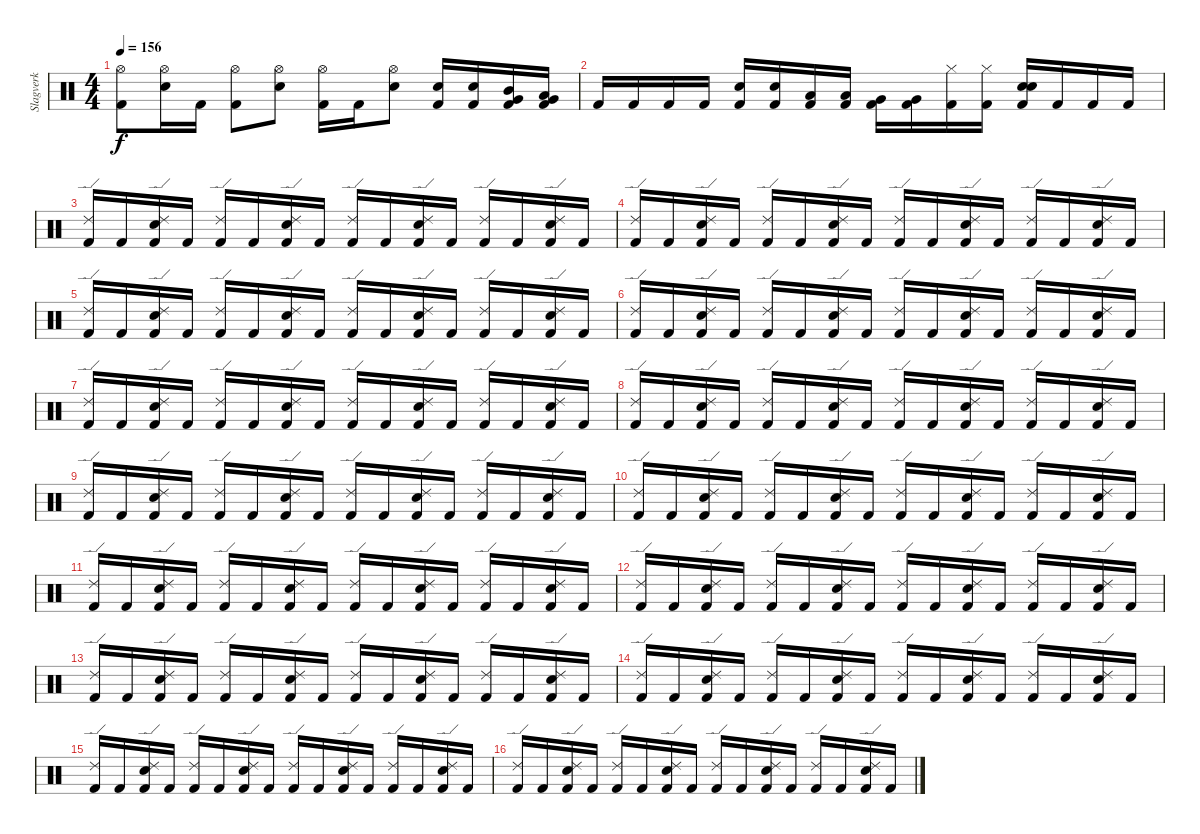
\track ("Slagverk" "Slagverk") {instrument percussion}
\staff {score}
\articulation defaults
\ts (4 4)
\tempo 156
\clef neutral
\ks c
("Kick (hit) 2" "Hi-Hat (open)").8{dy f} ("Snare (hit) 2" "Hi-Hat (open)").16 "Kick (hit) 2".16 ("Kick (hit) 2" "Hi-Hat (open)").8 ("Snare (hit) 2" "Hi-Hat (open)").8 ("Kick (hit) 2" "Hi-Hat (open)").16 "Kick (hit) 2".16 ("Snare (hit) 2" "Hi-Hat (open)").8 ("Snare (hit) 2" "Kick (hit) 2").16 ("Snare (hit) 2" "Kick (hit) 2").16 ("Very Low Tom (hit)" "Mid Tom (hit)" "Kick (hit) 2").16 ("Low Tom (hit)" "Very Low Tom (hit)" "Kick (hit) 2").16 |
"Kick (hit) 2".16 "Kick (hit) 2".16 "Kick (hit) 2".16 "Kick (hit) 2".16 ("Snare (hit) 2" "Kick (hit) 2").16 ("Snare (hit) 2" "Kick (hit) 2").16 ("Low Tom (hit)" "Kick (hit) 2").16 ("Low Tom (hit)" "Kick (hit) 2").16 ("Very Low Tom (hit)" "Kick (hit) 2").16 ("Very Low Tom (hit)" "Kick (hit) 2").16 ("Hi-Hat (closed)" "Kick (hit) 2").16 ("Hi-Hat (closed)" "Kick (hit) 2").16 ("Snare (hit) 2" "Electric Snare (hit)" "Kick (hit) 2").16 "Kick (hit) 2".16 "Kick (hit) 2".16 "Kick (hit) 2".16 |
("Ride (edge) 2" "Kick (hit) 2").16 "Kick (hit) 2".16 ("Snare (hit) 2" "Ride (edge) 2" "Kick (hit) 2").16 "Kick (hit) 2".16 ("Ride (edge) 2" "Kick (hit) 2").16 "Kick (hit) 2".16 ("Snare (hit) 2" "Ride (edge) 2" "Kick (hit) 2").16 "Kick (hit) 2".16 ("Ride (edge) 2" "Kick (hit) 2").16 "Kick (hit) 2".16 ("Snare (hit) 2" "Ride (edge) 2" "Kick (hit) 2").16 "Kick (hit) 2".16 ("Ride (edge) 2" "Kick (hit) 2").16 "Kick (hit) 2".16 ("Snare (hit) 2" "Ride (edge) 2" "Kick (hit) 2").16 "Kick (hit) 2".16 |
("Ride (edge) 2" "Kick (hit) 2").16 "Kick (hit) 2".16 ("Snare (hit) 2" "Ride (edge) 2" "Kick (hit) 2").16 "Kick (hit) 2".16 ("Ride (edge) 2" "Kick (hit) 2").16 "Kick (hit) 2".16 ("Snare (hit) 2" "Ride (edge) 2" "Kick (hit) 2").16 "Kick (hit) 2".16 ("Ride (edge) 2" "Kick (hit) 2").16 "Kick (hit) 2".16 ("Snare (hit) 2" "Ride (edge) 2" "Kick (hit) 2").16 "Kick (hit) 2".16 ("Ride (edge) 2" "Kick (hit) 2").16 "Kick (hit) 2".16 ("Snare (hit) 2" "Ride (edge) 2" "Kick (hit) 2").16 "Kick (hit) 2".16 |
("Ride (edge) 2" "Kick (hit) 2").16 "Kick (hit) 2".16 ("Snare (hit) 2" "Ride (edge) 2" "Kick (hit) 2").16 "Kick (hit) 2".16 ("Ride (edge) 2" "Kick (hit) 2").16 "Kick (hit) 2".16 ("Snare (hit) 2" "Ride (edge) 2" "Kick (hit) 2").16 "Kick (hit) 2".16 ("Ride (edge) 2" "Kick (hit) 2").16 "Kick (hit) 2".16 ("Snare (hit) 2" "Ride (edge) 2" "Kick (hit) 2").16 "Kick (hit) 2".16 ("Ride (edge) 2" "Kick (hit) 2").16 "Kick (hit) 2".16 ("Snare (hit) 2" "Ride (edge) 2" "Kick (hit) 2").16 "Kick (hit) 2".16 |
("Ride (edge) 2" "Kick (hit) 2").16 "Kick (hit) 2".16 ("Snare (hit) 2" "Ride (edge) 2" "Kick (hit) 2").16 "Kick (hit) 2".16 ("Ride (edge) 2" "Kick (hit) 2").16 "Kick (hit) 2".16 ("Snare (hit) 2" "Ride (edge) 2" "Kick (hit) 2").16 "Kick (hit) 2".16 ("Ride (edge) 2" "Kick (hit) 2").16 "Kick (hit) 2".16 ("Snare (hit) 2" "Ride (edge) 2" "Kick (hit) 2").16 "Kick (hit) 2".16 ("Ride (edge) 2" "Kick (hit) 2").16 "Kick (hit) 2".16 ("Snare (hit) 2" "Ride (edge) 2" "Kick (hit) 2").16 "Kick (hit) 2".16 |
("Ride (edge) 2" "Kick (hit) 2").16 "Kick (hit) 2".16 ("Snare (hit) 2" "Ride (edge) 2" "Kick (hit) 2").16 "Kick (hit) 2".16 ("Ride (edge) 2" "Kick (hit) 2").16 "Kick (hit) 2".16 ("Snare (hit) 2" "Ride (edge) 2" "Kick (hit) 2").16 "Kick (hit) 2".16 ("Ride (edge) 2" "Kick (hit) 2").16 "Kick (hit) 2".16 ("Snare (hit) 2" "Ride (edge) 2" "Kick (hit) 2").16 "Kick (hit) 2".16 ("Ride (edge) 2" "Kick (hit) 2").16 "Kick (hit) 2".16 ("Snare (hit) 2" "Ride (edge) 2" "Kick (hit) 2").16 "Kick (hit) 2".16 |
("Ride (edge) 2" "Kick (hit) 2").16 "Kick (hit) 2".16 ("Snare (hit) 2" "Ride (edge) 2" "Kick (hit) 2").16 "Kick (hit) 2".16 ("Ride (edge) 2" "Kick (hit) 2").16 "Kick (hit) 2".16 ("Snare (hit) 2" "Ride (edge) 2" "Kick (hit) 2").16 "Kick (hit) 2".16 ("Ride (edge) 2" "Kick (hit) 2").16 "Kick (hit) 2".16 ("Snare (hit) 2" "Ride (edge) 2" "Kick (hit) 2").16 "Kick (hit) 2".16 ("Ride (edge) 2" "Kick (hit) 2").16 "Kick (hit) 2".16 ("Snare (hit) 2" "Ride (edge) 2" "Kick (hit) 2").16 "Kick (hit) 2".16 |
("Ride (edge) 2" "Kick (hit) 2").16 "Kick (hit) 2".16 ("Snare (hit) 2" "Ride (edge) 2" "Kick (hit) 2").16 "Kick (hit) 2".16 ("Ride (edge) 2" "Kick (hit) 2").16 "Kick (hit) 2".16 ("Snare (hit) 2" "Ride (edge) 2" "Kick (hit) 2").16 "Kick (hit) 2".16 ("Ride (edge) 2" "Kick (hit) 2").16 "Kick (hit) 2".16 ("Snare (hit) 2" "Ride (edge) 2" "Kick (hit) 2").16 "Kick (hit) 2".16 ("Ride (edge) 2" "Kick (hit) 2").16 "Kick (hit) 2".16 ("Snare (hit) 2" "Ride (edge) 2" "Kick (hit) 2").16 "Kick (hit) 2".16 |
("Ride (edge) 2" "Kick (hit) 2").16 "Kick (hit) 2".16 ("Snare (hit) 2" "Ride (edge) 2" "Kick (hit) 2").16 "Kick (hit) 2".16 ("Ride (edge) 2" "Kick (hit) 2").16 "Kick (hit) 2".16 ("Snare (hit) 2" "Ride (edge) 2" "Kick (hit) 2").16 "Kick (hit) 2".16 ("Ride (edge) 2" "Kick (hit) 2").16 "Kick (hit) 2".16 ("Snare (hit) 2" "Ride (edge) 2" "Kick (hit) 2").16 "Kick (hit) 2".16 ("Ride (edge) 2" "Kick (hit) 2").16 "Kick (hit) 2".16 ("Snare (hit) 2" "Ride (edge) 2" "Kick (hit) 2").16 "Kick (hit) 2".16 |
("Ride (edge) 2" "Kick (hit) 2").16 "Kick (hit) 2".16 ("Snare (hit) 2" "Ride (edge) 2" "Kick (hit) 2").16 "Kick (hit) 2".16 ("Ride (edge) 2" "Kick (hit) 2").16 "Kick (hit) 2".16 ("Snare (hit) 2" "Ride (edge) 2" "Kick (hit) 2").16 "Kick (hit) 2".16 ("Ride (edge) 2" "Kick (hit) 2").16 "Kick (hit) 2".16 ("Snare (hit) 2" "Ride (edge) 2" "Kick (hit) 2").16 "Kick (hit) 2".16 ("Ride (edge) 2" "Kick (hit) 2").16 "Kick (hit) 2".16 ("Snare (hit) 2" "Ride (edge) 2" "Kick (hit) 2").16 "Kick (hit) 2".16 |
("Ride (edge) 2" "Kick (hit) 2").16 "Kick (hit) 2".16 ("Snare (hit) 2" "Ride (edge) 2" "Kick (hit) 2").16 "Kick (hit) 2".16 ("Ride (edge) 2" "Kick (hit) 2").16 "Kick (hit) 2".16 ("Snare (hit) 2" "Ride (edge) 2" "Kick (hit) 2").16 "Kick (hit) 2".16 ("Ride (edge) 2" "Kick (hit) 2").16 "Kick (hit) 2".16 ("Snare (hit) 2" "Ride (edge) 2" "Kick (hit) 2").16 "Kick (hit) 2".16 ("Ride (edge) 2" "Kick (hit) 2").16 "Kick (hit) 2".16 ("Snare (hit) 2" "Ride (edge) 2" "Kick (hit) 2").16 "Kick (hit) 2".16 |
("Ride (edge) 2" "Kick (hit) 2").16 "Kick (hit) 2".16 ("Snare (hit) 2" "Ride (edge) 2" "Kick (hit) 2").16 "Kick (hit) 2".16 ("Ride (edge) 2" "Kick (hit) 2").16 "Kick (hit) 2".16 ("Snare (hit) 2" "Ride (edge) 2" "Kick (hit) 2").16 "Kick (hit) 2".16 ("Ride (edge) 2" "Kick (hit) 2").16 "Kick (hit) 2".16 ("Snare (hit) 2" "Ride (edge) 2" "Kick (hit) 2").16 "Kick (hit) 2".16 ("Ride (edge) 2" "Kick (hit) 2").16 "Kick (hit) 2".16 ("Snare (hit) 2" "Ride (edge) 2" "Kick (hit) 2").16 "Kick (hit) 2".16 |
("Ride (edge) 2" "Kick (hit) 2").16 "Kick (hit) 2".16 ("Snare (hit) 2" "Ride (edge) 2" "Kick (hit) 2").16 "Kick (hit) 2".16 ("Ride (edge) 2" "Kick (hit) 2").16 "Kick (hit) 2".16 ("Snare (hit) 2" "Ride (edge) 2" "Kick (hit) 2").16 "Kick (hit) 2".16 ("Ride (edge) 2" "Kick (hit) 2").16 "Kick (hit) 2".16 ("Snare (hit) 2" "Ride (edge) 2" "Kick (hit) 2").16 "Kick (hit) 2".16 ("Ride (edge) 2" "Kick (hit) 2").16 "Kick (hit) 2".16 ("Snare (hit) 2" "Ride (edge) 2" "Kick (hit) 2").16 "Kick (hit) 2".16 |
("Ride (edge) 2" "Kick (hit) 2").16 "Kick (hit) 2".16 ("Snare (hit) 2" "Ride (edge) 2" "Kick (hit) 2").16 "Kick (hit) 2".16 ("Ride (edge) 2" "Kick (hit) 2").16 "Kick (hit) 2".16 ("Snare (hit) 2" "Ride (edge) 2" "Kick (hit) 2").16 "Kick (hit) 2".16 ("Ride (edge) 2" "Kick (hit) 2").16 "Kick (hit) 2".16 ("Snare (hit) 2" "Ride (edge) 2" "Kick (hit) 2").16 "Kick (hit) 2".16 ("Ride (edge) 2" "Kick (hit) 2").16 "Kick (hit) 2".16 ("Snare (hit) 2" "Ride (edge) 2" "Kick (hit) 2").16 "Kick (hit) 2".16 |
("Ride (edge) 2" "Kick (hit) 2").16 "Kick (hit) 2".16 ("Snare (hit) 2" "Ride (edge) 2" "Kick (hit) 2").16 "Kick (hit) 2".16 ("Ride (edge) 2" "Kick (hit) 2").16 "Kick (hit) 2".16 ("Snare (hit) 2" "Ride (edge) 2" "Kick (hit) 2").16 "Kick (hit) 2".16 ("Ride (edge) 2" "Kick (hit) 2").16 "Kick (hit) 2".16 ("Snare (hit) 2" "Ride (edge) 2" "Kick (hit) 2").16 "Kick (hit) 2".16 ("Ride (edge) 2" "Kick (hit) 2").16 "Kick (hit) 2".16 ("Snare (hit) 2" "Ride (edge) 2" "Kick (hit) 2").16 "Kick (hit) 2".16
